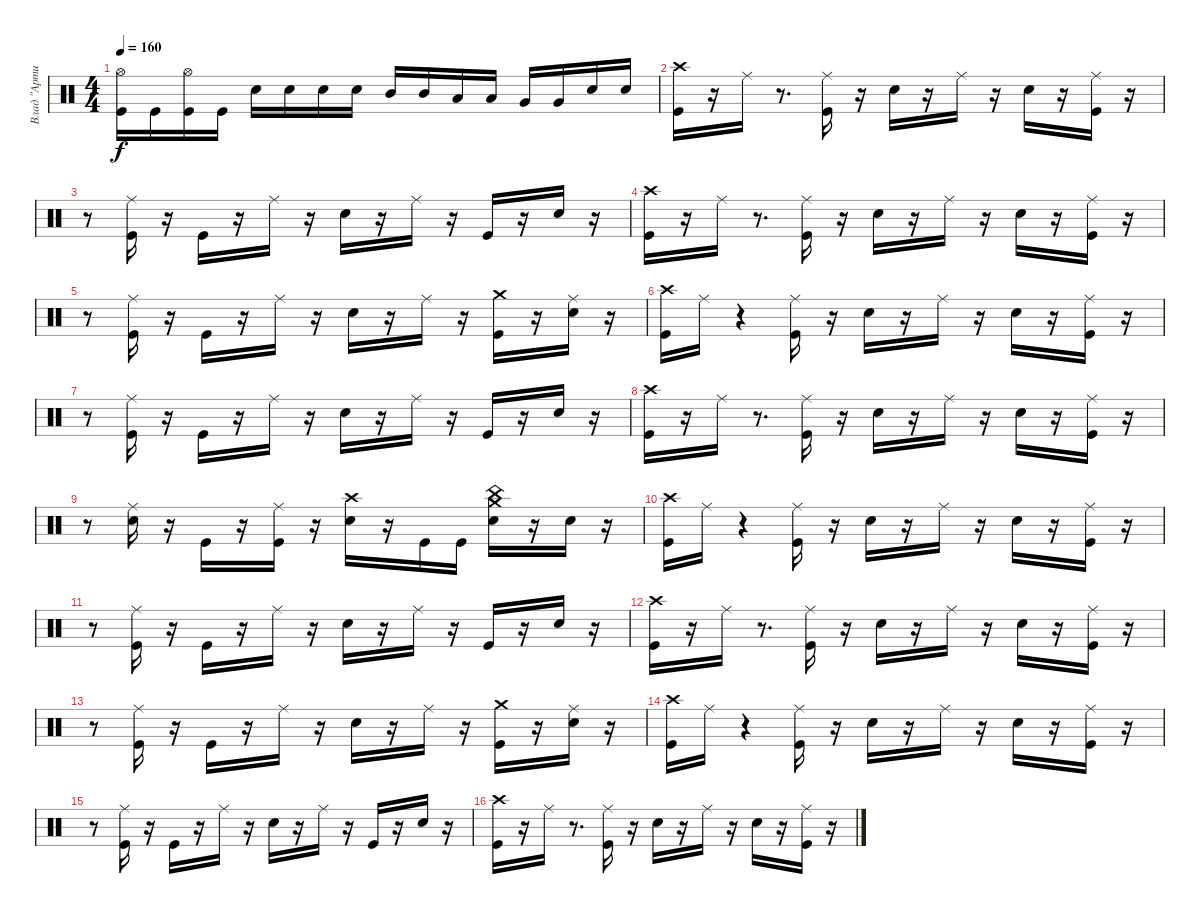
\track ("Влад \"Артист\"" "Влад \"Арти") {instrument percussion}
\staff {score}
\articulation defaults
\ts (4 4)
\tempo 160
\clef neutral
\ks c
("Kick (hit)" "Hi-Hat (open)").16{dy f} "Kick (hit)".16 ("Kick (hit)" "Hi-Hat (open)").16 "Kick (hit)".16 "Snare (hit) 2".16 "Snare (hit) 2".16 "Snare (hit) 2".16 "Snare (hit) 2".16 "Mid Tom (hit)".16 "Mid Tom (hit)".16 "Low Tom (hit)".16 "Low Tom (hit)".16 "Very Low Tom (hit)".16 "Very Low Tom (hit)".16 "Snare (hit) 2".16 "Snare (hit) 2".16 |
("Crash high (hit)" "Kick (hit)").16 r.16 "Ride (middle)".16 r.8{d} ("Ride (middle)" "Kick (hit)").16 r.16 "Snare (hit) 2".16 r.16 "Ride (middle)".16 r.16 "Snare (hit) 2".16 r.16 ("Ride (middle)" "Kick (hit)").16 r.16 |
r.8 ("Ride (middle)" "Kick (hit)").16 r.16 "Kick (hit)".16 r.16 "Ride (middle)".16 r.16 "Snare (hit) 2".16 r.16 "Ride (middle)".16 r.16 "Kick (hit)".16 r.16 "Snare (hit) 2".16 r.16 |
("Crash high (hit)" "Kick (hit)").16 r.16 "Ride (middle)".16 r.8{d} ("Ride (middle)" "Kick (hit)").16 r.16 "Snare (hit) 2".16 r.16 "Ride (middle)".16 r.16 "Snare (hit) 2".16 r.16 ("Ride (middle)" "Kick (hit)").16 r.16 |
r.8 ("Ride (middle)" "Kick (hit)").16 r.16 "Kick (hit)".16 r.16 "Ride (middle)".16 r.16 "Snare (hit) 2".16 r.16 "Ride (middle)".16 r.16 ("Crash medium (hit)" "Kick (hit)").16 r.16 ("Ride (middle)" "Snare (hit) 2").16 r.16 |
("Crash high (hit)" "Kick (hit)").16 "Ride (middle)".16 r.4 ("Ride (middle)" "Kick (hit)").16 r.16 "Snare (hit) 2".16 r.16 "Ride (middle)".16 r.16 "Snare (hit) 2".16 r.16 ("Ride (middle)" "Kick (hit)").16 r.16 |
r.8 ("Ride (middle)" "Kick (hit)").16 r.16 "Kick (hit)".16 r.16 "Ride (middle)".16 r.16 "Snare (hit) 2".16 r.16 "Ride (middle)".16 r.16 "Kick (hit)".16 r.16 "Snare (hit) 2".16 r.16 |
("Crash high (hit)" "Kick (hit)").16 r.16 "Ride (middle)".16 r.8{d} ("Ride (middle)" "Kick (hit)").16 r.16 "Snare (hit) 2".16 r.16 "Ride (middle)".16 r.16 "Snare (hit) 2".16 r.16 ("Ride (middle)" "Kick (hit)").16 r.16 |
r.8 ("Snare (hit) 2" "Ride (middle)").16 r.16 "Kick (hit)".16 r.16 ("Ride (middle)" "Kick (hit)").16 r.16 ("Crash high (hit)" "Snare (hit) 2").16 r.16 "Kick (hit)".16 "Kick (hit)".16 ("China (hit)" "Snare (hit) 2" "Crash medium (hit)").16 r.16 "Snare (hit) 2".16 r.16 |
("Crash high (hit)" "Kick (hit)").16 "Ride (middle)".16 r.4 ("Ride (middle)" "Kick (hit)").16 r.16 "Snare (hit) 2".16 r.16 "Ride (middle)".16 r.16 "Snare (hit) 2".16 r.16 ("Ride (middle)" "Kick (hit)").16 r.16 |
r.8 ("Ride (middle)" "Kick (hit)").16 r.16 "Kick (hit)".16 r.16 "Ride (middle)".16 r.16 "Snare (hit) 2".16 r.16 "Ride (middle)".16 r.16 "Kick (hit)".16 r.16 "Snare (hit) 2".16 r.16 |
("Crash high (hit)" "Kick (hit)").16 r.16 "Ride (middle)".16 r.8{d} ("Ride (middle)" "Kick (hit)").16 r.16 "Snare (hit) 2".16 r.16 "Ride (middle)".16 r.16 "Snare (hit) 2".16 r.16 ("Ride (middle)" "Kick (hit)").16 r.16 |
r.8 ("Kick (hit)" "Ride (middle)").16 r.16 "Kick (hit)".16 r.16 "Ride (middle)".16 r.16 "Snare (hit) 2".16 r.16 "Ride (middle)".16 r.16 ("Crash medium (hit)" "Kick (hit)").16 r.16 ("Ride (middle)" "Snare (hit) 2").16 r.16 |
("Crash high (hit)" "Kick (hit)").16 "Ride (middle)".16 r.4 ("Ride (middle)" "Kick (hit)").16 r.16 "Snare (hit) 2".16 r.16 "Ride (middle)".16 r.16 "Snare (hit) 2".16 r.16 ("Ride (middle)" "Kick (hit)").16 r.16 |
r.8 ("Ride (middle)" "Kick (hit)").16 r.16 "Kick (hit)".16 r.16 "Ride (middle)".16 r.16 "Snare (hit) 2".16 r.16 "Ride (middle)".16 r.16 "Kick (hit)".16 r.16 "Snare (hit) 2".16 r.16 |
("Crash high (hit)" "Kick (hit)").16 r.16 "Ride (middle)".16 r.8{d} ("Ride (middle)" "Kick (hit)").16 r.16 "Snare (hit) 2".16 r.16 "Ride (middle)".16 r.16 "Snare (hit) 2".16 r.16 ("Ride (middle)" "Kick (hit)").16 r.16
